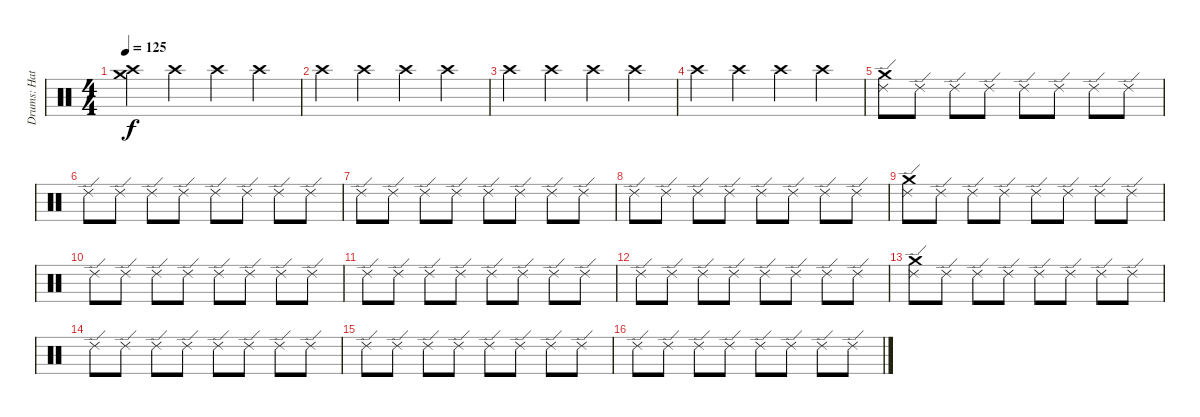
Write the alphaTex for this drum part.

\track ("Drums: Hats, Etc" "Drums: Hat") {instrument percussion}
\staff {score}
\articulation defaults
\ts (4 4)
\tempo 125
\clef neutral
\ks c
("Crash medium (hit)" "Crash high (hit)").4{dy f} "Crash high (hit)".4 "Crash high (hit)".4 "Crash high (hit)".4 |
"Crash high (hit)".4 "Crash high (hit)".4 "Crash high (hit)".4 "Crash high (hit)".4 |
"Crash high (hit)".4 "Crash high (hit)".4 "Crash high (hit)".4 "Crash high (hit)".4 |
"Crash high (hit)".4 "Crash high (hit)".4 "Crash high (hit)".4 "Crash high (hit)".4 |
("Ride (edge) 2" "Crash medium (hit)").8 "Ride (edge) 2".8 "Ride (edge) 2".8 "Ride (edge) 2".8 "Ride (edge) 2".8 "Ride (edge) 2".8 "Ride (edge) 2".8 "Ride (edge) 2".8 |
"Ride (edge) 2".8 "Ride (edge) 2".8 "Ride (edge) 2".8 "Ride (edge) 2".8 "Ride (edge) 2".8 "Ride (edge) 2".8 "Ride (edge) 2".8 "Ride (edge) 2".8 |
"Ride (edge) 2".8 "Ride (edge) 2".8 "Ride (edge) 2".8 "Ride (edge) 2".8 "Ride (edge) 2".8 "Ride (edge) 2".8 "Ride (edge) 2".8 "Ride (edge) 2".8 |
"Ride (edge) 2".8 "Ride (edge) 2".8 "Ride (edge) 2".8 "Ride (edge) 2".8 "Ride (edge) 2".8 "Ride (edge) 2".8 "Ride (edge) 2".8 "Ride (edge) 2".8 |
("Ride (edge) 2" "Crash medium (hit)").8 "Ride (edge) 2".8 "Ride (edge) 2".8 "Ride (edge) 2".8 "Ride (edge) 2".8 "Ride (edge) 2".8 "Ride (edge) 2".8 "Ride (edge) 2".8 |
"Ride (edge) 2".8 "Ride (edge) 2".8 "Ride (edge) 2".8 "Ride (edge) 2".8 "Ride (edge) 2".8 "Ride (edge) 2".8 "Ride (edge) 2".8 "Ride (edge) 2".8 |
"Ride (edge) 2".8 "Ride (edge) 2".8 "Ride (edge) 2".8 "Ride (edge) 2".8 "Ride (edge) 2".8 "Ride (edge) 2".8 "Ride (edge) 2".8 "Ride (edge) 2".8 |
"Ride (edge) 2".8 "Ride (edge) 2".8 "Ride (edge) 2".8 "Ride (edge) 2".8 "Ride (edge) 2".8 "Ride (edge) 2".8 "Ride (edge) 2".8 "Ride (edge) 2".8 |
("Ride (edge) 2" "Crash medium (hit)").8 "Ride (edge) 2".8 "Ride (edge) 2".8 "Ride (edge) 2".8 "Ride (edge) 2".8 "Ride (edge) 2".8 "Ride (edge) 2".8 "Ride (edge) 2".8 |
"Ride (edge) 2".8 "Ride (edge) 2".8 "Ride (edge) 2".8 "Ride (edge) 2".8 "Ride (edge) 2".8 "Ride (edge) 2".8 "Ride (edge) 2".8 "Ride (edge) 2".8 |
"Ride (edge) 2".8 "Ride (edge) 2".8 "Ride (edge) 2".8 "Ride (edge) 2".8 "Ride (edge) 2".8 "Ride (edge) 2".8 "Ride (edge) 2".8 "Ride (edge) 2".8 |
"Ride (edge) 2".8 "Ride (edge) 2".8 "Ride (edge) 2".8 "Ride (edge) 2".8 "Ride (edge) 2".8 "Ride (edge) 2".8 "Ride (edge) 2".8 "Ride (edge) 2".8
